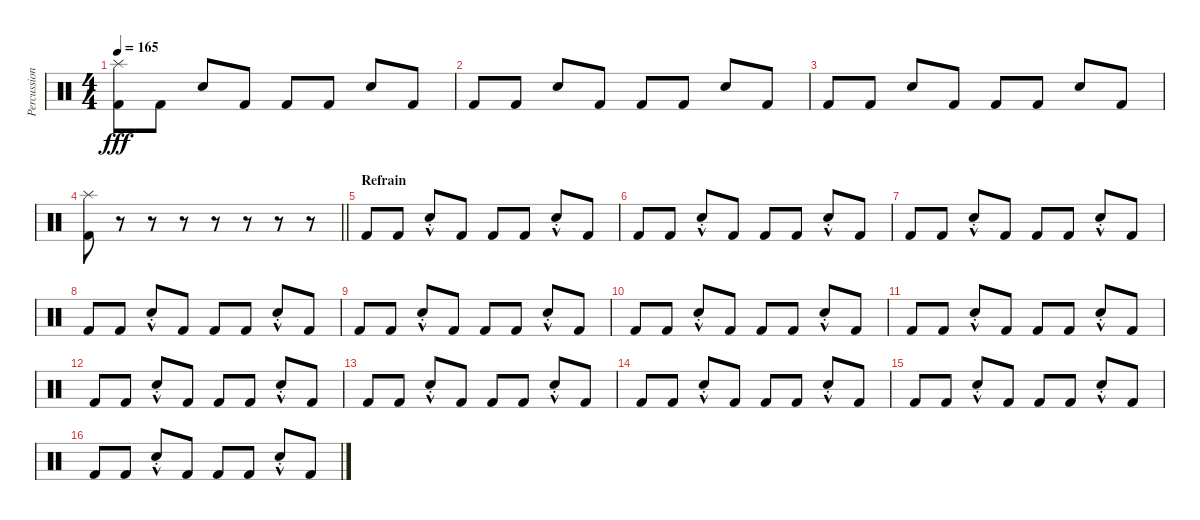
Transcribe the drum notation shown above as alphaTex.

\track ("Percussions" "Percussion") {instrument percussion}
\staff {score}
\articulation defaults
\ts (4 4)
\tempo 165
\clef neutral
\ks c
("Splash (hit)" "Kick (hit) 2").8{dy fff} "Kick (hit) 2".8 "Electric Snare (hit)".8 "Kick (hit) 2".8 "Kick (hit) 2".8 "Kick (hit) 2".8 "Electric Snare (hit)".8 "Kick (hit) 2".8 |
"Kick (hit) 2".8 "Kick (hit) 2".8 "Electric Snare (hit)".8 "Kick (hit) 2".8 "Kick (hit) 2".8 "Kick (hit) 2".8 "Electric Snare (hit)".8 "Kick (hit) 2".8 |
"Kick (hit) 2".8 "Kick (hit) 2".8 "Electric Snare (hit)".8 "Kick (hit) 2".8 "Kick (hit) 2".8 "Kick (hit) 2".8 "Electric Snare (hit)".8 "Kick (hit) 2".8 |
\barLineRight lightlight
("Splash (hit)" "Kick (hit) 2").8 r.8 r.8 r.8 r.8 r.8 r.8 r.8 |
\section ("" "Refrain")
"Kick (hit) 2".8 "Kick (hit) 2".8 "Electric Snare (hit)"{hac st}.8 "Kick (hit) 2".8 "Kick (hit) 2".8 "Kick (hit) 2".8 "Electric Snare (hit)"{hac st}.8 "Kick (hit) 2".8 |
"Kick (hit) 2".8 "Kick (hit) 2".8 "Electric Snare (hit)"{hac st}.8 "Kick (hit) 2".8 "Kick (hit) 2".8 "Kick (hit) 2".8 "Electric Snare (hit)"{hac st}.8 "Kick (hit) 2".8 |
"Kick (hit) 2".8 "Kick (hit) 2".8 "Electric Snare (hit)"{hac st}.8 "Kick (hit) 2".8 "Kick (hit) 2".8 "Kick (hit) 2".8 "Electric Snare (hit)"{hac st}.8 "Kick (hit) 2".8 |
"Kick (hit) 2".8 "Kick (hit) 2".8 "Electric Snare (hit)"{hac st}.8 "Kick (hit) 2".8 "Kick (hit) 2".8 "Kick (hit) 2".8 "Electric Snare (hit)"{hac st}.8 "Kick (hit) 2".8 |
"Kick (hit) 2".8 "Kick (hit) 2".8 "Electric Snare (hit)"{hac st}.8 "Kick (hit) 2".8 "Kick (hit) 2".8 "Kick (hit) 2".8 "Electric Snare (hit)"{hac st}.8 "Kick (hit) 2".8 |
"Kick (hit) 2".8 "Kick (hit) 2".8 "Electric Snare (hit)"{hac st}.8 "Kick (hit) 2".8 "Kick (hit) 2".8 "Kick (hit) 2".8 "Electric Snare (hit)"{hac st}.8 "Kick (hit) 2".8 |
"Kick (hit) 2".8 "Kick (hit) 2".8 "Electric Snare (hit)"{hac st}.8 "Kick (hit) 2".8 "Kick (hit) 2".8 "Kick (hit) 2".8 "Electric Snare (hit)"{hac st}.8 "Kick (hit) 2".8 |
"Kick (hit) 2".8 "Kick (hit) 2".8 "Electric Snare (hit)"{hac st}.8 "Kick (hit) 2".8 "Kick (hit) 2".8 "Kick (hit) 2".8 "Electric Snare (hit)"{hac st}.8 "Kick (hit) 2".8 |
"Kick (hit) 2".8 "Kick (hit) 2".8 "Electric Snare (hit)"{hac st}.8 "Kick (hit) 2".8 "Kick (hit) 2".8 "Kick (hit) 2".8 "Electric Snare (hit)"{hac st}.8 "Kick (hit) 2".8 |
"Kick (hit) 2".8 "Kick (hit) 2".8 "Electric Snare (hit)"{hac st}.8 "Kick (hit) 2".8 "Kick (hit) 2".8 "Kick (hit) 2".8 "Electric Snare (hit)"{hac st}.8 "Kick (hit) 2".8 |
"Kick (hit) 2".8 "Kick (hit) 2".8 "Electric Snare (hit)"{hac st}.8 "Kick (hit) 2".8 "Kick (hit) 2".8 "Kick (hit) 2".8 "Electric Snare (hit)"{hac st}.8 "Kick (hit) 2".8 |
"Kick (hit) 2".8 "Kick (hit) 2".8 "Electric Snare (hit)"{hac st}.8 "Kick (hit) 2".8 "Kick (hit) 2".8 "Kick (hit) 2".8 "Electric Snare (hit)"{hac st}.8 "Kick (hit) 2".8
